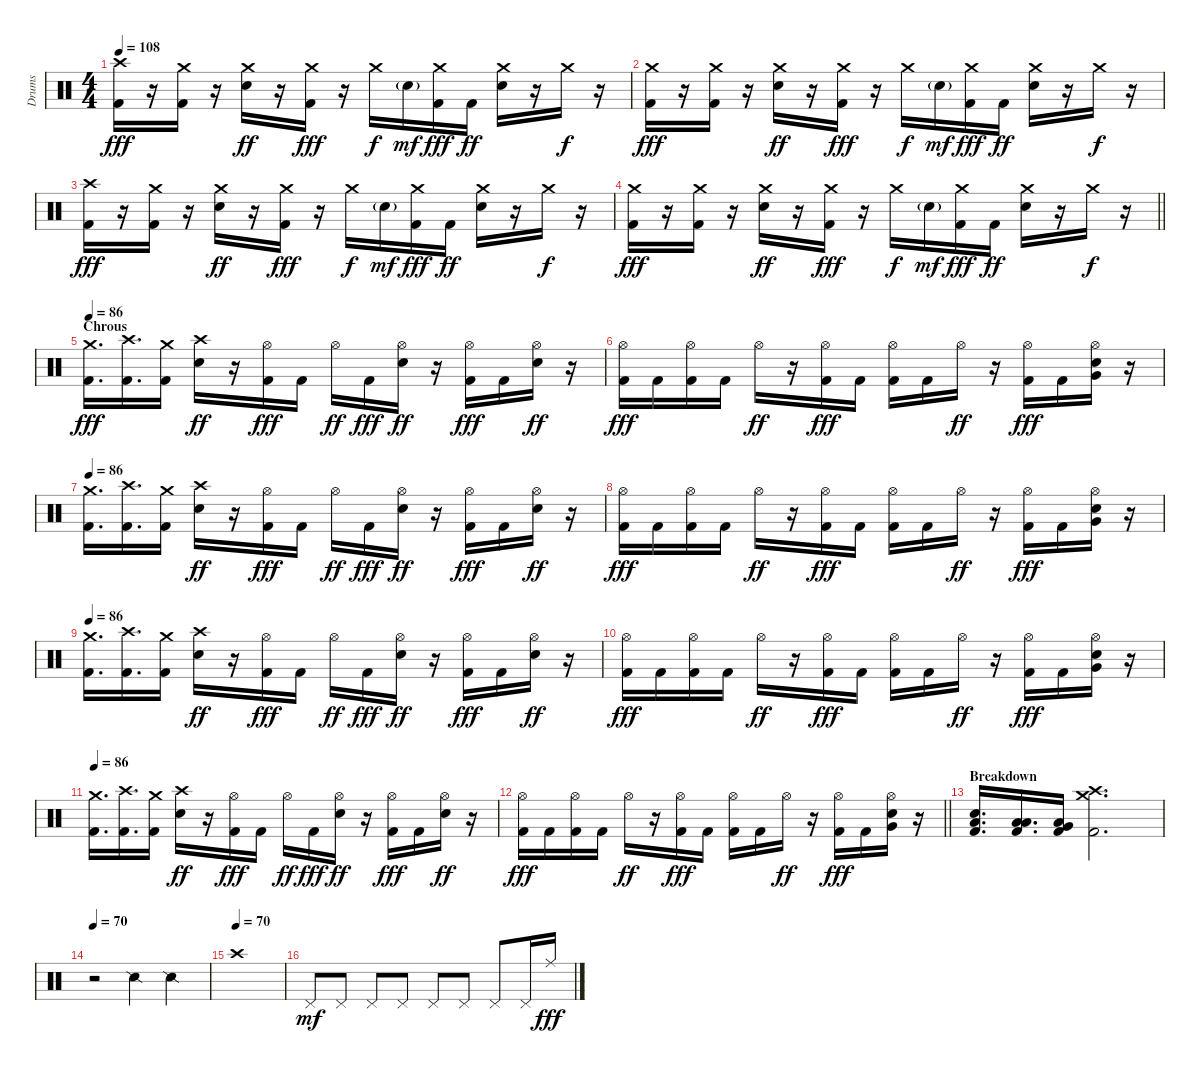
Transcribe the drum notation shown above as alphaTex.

\track ("Drums" "Drums") {instrument percussion}
\staff {score}
\articulation defaults
\ts (4 4)
\tempo 108
\clef neutral
\ks c
("Crash high (hit)" "Kick (hit) 2").16{dy fff} r.16 ("Crash medium (hit)" "Kick (hit) 2").16 r.16 ("Crash medium (hit)" "Electric Snare (hit)").16{dy ff} r.16 ("Crash medium (hit)" "Kick (hit) 2").16{dy fff} r.16 "Crash medium (hit)".16{dy f} "Electric Snare (hit)"{g}.16{dy mf} ("Crash medium (hit)" "Kick (hit) 2").16{dy fff} "Kick (hit) 2".16{dy ff} ("Crash medium (hit)" "Electric Snare (hit)").16 r.16 "Crash medium (hit)".16{dy f} r.16 |
("Crash medium (hit)" "Kick (hit) 2").16{dy fff} r.16 ("Crash medium (hit)" "Kick (hit) 2").16 r.16 ("Crash medium (hit)" "Electric Snare (hit)").16{dy ff} r.16 ("Crash medium (hit)" "Kick (hit) 2").16{dy fff} r.16 "Crash medium (hit)".16{dy f} "Electric Snare (hit)"{g}.16{dy mf} ("Crash medium (hit)" "Kick (hit) 2").16{dy fff} "Kick (hit) 2".16{dy ff} ("Crash medium (hit)" "Electric Snare (hit)").16 r.16 "Crash medium (hit)".16{dy f} r.16 |
("Crash high (hit)" "Kick (hit) 2").16{dy fff} r.16 ("Crash medium (hit)" "Kick (hit) 2").16 r.16 ("Crash medium (hit)" "Electric Snare (hit)").16{dy ff} r.16 ("Crash medium (hit)" "Kick (hit) 2").16{dy fff} r.16 "Crash medium (hit)".16{dy f} "Electric Snare (hit)"{g}.16{dy mf} ("Crash medium (hit)" "Kick (hit) 2").16{dy fff} "Kick (hit) 2".16{dy ff} ("Crash medium (hit)" "Electric Snare (hit)").16 r.16 "Crash medium (hit)".16{dy f} r.16 |
\barLineRight lightlight
("Crash medium (hit)" "Kick (hit) 2").16{dy fff} r.16 ("Crash medium (hit)" "Kick (hit) 2").16 r.16 ("Crash medium (hit)" "Electric Snare (hit)").16{dy ff} r.16 ("Crash medium (hit)" "Kick (hit) 2").16{dy fff} r.16 "Crash medium (hit)".16{dy f} "Electric Snare (hit)"{g}.16{dy mf} ("Crash medium (hit)" "Kick (hit) 2").16{dy fff} "Kick (hit) 2".16{dy ff} ("Crash medium (hit)" "Electric Snare (hit)").16 r.16 "Crash medium (hit)".16{dy f} r.16 |
\section ("" "Chrous")
\tempo 86
("Crash medium (hit)" "Kick (hit) 2").16{d dy fff} ("Crash high (hit)" "Kick (hit) 2").16{d} ("Crash medium (hit)" "Kick (hit) 2").16 ("Crash high (hit)" "Electric Snare (hit)").16{dy ff} r.16 ("Hi-Hat (open)" "Kick (hit) 2").16{dy fff} "Kick (hit) 2".16 "Hi-Hat (open)".16{dy ff} "Kick (hit) 2".16{dy fff} ("Hi-Hat (open)" "Electric Snare (hit)").16{dy ff} r.16 ("Hi-Hat (open)" "Kick (hit) 2").16{dy fff} "Kick (hit) 2".16 ("Hi-Hat (open)" "Electric Snare (hit)").16{dy ff} r.16 |
("Hi-Hat (open)" "Kick (hit) 2").16{dy fff} "Kick (hit) 2".16 ("Hi-Hat (open)" "Kick (hit) 2").16 "Kick (hit) 2".16 "Hi-Hat (open)".16{dy ff} r.16 ("Hi-Hat (open)" "Kick (hit) 2").16{dy fff} "Kick (hit) 2".16 ("Hi-Hat (open)" "Kick (hit) 2").16 "Kick (hit) 2".16 "Hi-Hat (open)".16{dy ff} r.16 ("Hi-Hat (open)" "Kick (hit) 2").16{dy fff} "Kick (hit) 2".16 ("Hi-Hat (open)" "Electric Snare (hit)" "Very Low Tom (hit)").16 r.16 |
\tempo 86
("Crash medium (hit)" "Kick (hit) 2").16{d} ("Crash high (hit)" "Kick (hit) 2").16{d} ("Crash medium (hit)" "Kick (hit) 2").16 ("Crash high (hit)" "Electric Snare (hit)").16{dy ff} r.16 ("Hi-Hat (open)" "Kick (hit) 2").16{dy fff} "Kick (hit) 2".16 "Hi-Hat (open)".16{dy ff} "Kick (hit) 2".16{dy fff} ("Hi-Hat (open)" "Electric Snare (hit)").16{dy ff} r.16 ("Hi-Hat (open)" "Kick (hit) 2").16{dy fff} "Kick (hit) 2".16 ("Hi-Hat (open)" "Electric Snare (hit)").16{dy ff} r.16 |
("Hi-Hat (open)" "Kick (hit) 2").16{dy fff} "Kick (hit) 2".16 ("Hi-Hat (open)" "Kick (hit) 2").16 "Kick (hit) 2".16 "Hi-Hat (open)".16{dy ff} r.16 ("Hi-Hat (open)" "Kick (hit) 2").16{dy fff} "Kick (hit) 2".16 ("Hi-Hat (open)" "Kick (hit) 2").16 "Kick (hit) 2".16 "Hi-Hat (open)".16{dy ff} r.16 ("Hi-Hat (open)" "Kick (hit) 2").16{dy fff} "Kick (hit) 2".16 ("Hi-Hat (open)" "Electric Snare (hit)" "Very Low Tom (hit)").16 r.16 |
\tempo 86
("Crash medium (hit)" "Kick (hit) 2").16{d} ("Crash high (hit)" "Kick (hit) 2").16{d} ("Crash medium (hit)" "Kick (hit) 2").16 ("Crash high (hit)" "Electric Snare (hit)").16{dy ff} r.16 ("Hi-Hat (open)" "Kick (hit) 2").16{dy fff} "Kick (hit) 2".16 "Hi-Hat (open)".16{dy ff} "Kick (hit) 2".16{dy fff} ("Hi-Hat (open)" "Electric Snare (hit)").16{dy ff} r.16 ("Hi-Hat (open)" "Kick (hit) 2").16{dy fff} "Kick (hit) 2".16 ("Hi-Hat (open)" "Electric Snare (hit)").16{dy ff} r.16 |
("Hi-Hat (open)" "Kick (hit) 2").16{dy fff} "Kick (hit) 2".16 ("Hi-Hat (open)" "Kick (hit) 2").16 "Kick (hit) 2".16 "Hi-Hat (open)".16{dy ff} r.16 ("Hi-Hat (open)" "Kick (hit) 2").16{dy fff} "Kick (hit) 2".16 ("Hi-Hat (open)" "Kick (hit) 2").16 "Kick (hit) 2".16 "Hi-Hat (open)".16{dy ff} r.16 ("Hi-Hat (open)" "Kick (hit) 2").16{dy fff} "Kick (hit) 2".16 ("Hi-Hat (open)" "Electric Snare (hit)" "Very Low Tom (hit)").16 r.16 |
\tempo 86
("Crash medium (hit)" "Kick (hit) 2").16{d} ("Crash high (hit)" "Kick (hit) 2").16{d} ("Crash medium (hit)" "Kick (hit) 2").16 ("Crash high (hit)" "Electric Snare (hit)").16{dy ff} r.16 ("Hi-Hat (open)" "Kick (hit) 2").16{dy fff} "Kick (hit) 2".16 "Hi-Hat (open)".16{dy ff} "Kick (hit) 2".16{dy fff} ("Hi-Hat (open)" "Electric Snare (hit)").16{dy ff} r.16 ("Hi-Hat (open)" "Kick (hit) 2").16{dy fff} "Kick (hit) 2".16 ("Hi-Hat (open)" "Electric Snare (hit)").16{dy ff} r.16 |
\barLineRight lightlight
("Hi-Hat (open)" "Kick (hit) 2").16{dy fff} "Kick (hit) 2".16 ("Hi-Hat (open)" "Kick (hit) 2").16 "Kick (hit) 2".16 "Hi-Hat (open)".16{dy ff} r.16 ("Hi-Hat (open)" "Kick (hit) 2").16{dy fff} "Kick (hit) 2".16 ("Hi-Hat (open)" "Kick (hit) 2").16 "Kick (hit) 2".16 "Hi-Hat (open)".16{dy ff} r.16 ("Hi-Hat (open)" "Kick (hit) 2").16{dy fff} "Kick (hit) 2".16 ("Hi-Hat (open)" "Electric Snare (hit)" "Very Low Tom (hit)").16 r.16 |
\section ("" "Breakdown")
("Electric Snare (hit)" "Low Floor Tom (hit)" "Kick (hit) 2").16{d} ("Low Tom (hit)" "Low Floor Tom (hit)" "Kick (hit) 2").16{d} ("Very Low Tom (hit)" "Low Floor Tom (hit)" "Kick (hit) 2").16 ("Crash high (hit)" "Crash medium (hit)" "Kick (hit) 2").2{d} |
\tempo 70
r.2 "Snare (side stick) 2".4 "Snare (side stick) 2".4 |
\tempo (70)
"Crash high (hit)".1 |
"Pedal Hi-Hat (hit)".8{dy mf} "Pedal Hi-Hat (hit)".8 "Pedal Hi-Hat (hit)".8 "Pedal Hi-Hat (hit)".8 "Pedal Hi-Hat (hit)".8 "Pedal Hi-Hat (hit)".8 "Pedal Hi-Hat (hit)".8 "Pedal Hi-Hat (hit)".16 "Ride (middle)".16{dy fff}
